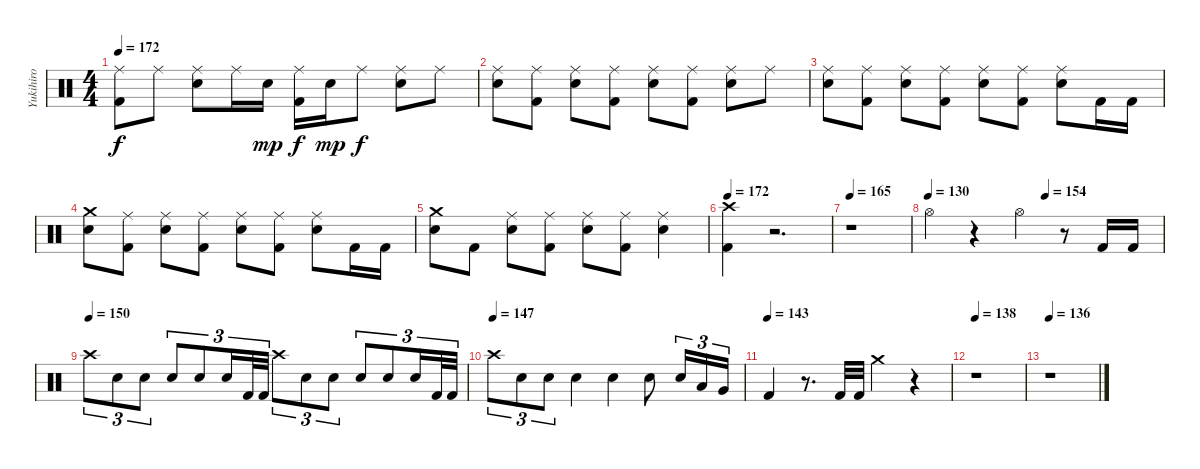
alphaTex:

\track ("Yukihiro" "Yukihiro") {instrument percussion}
\staff {score}
\articulation defaults
\ts (4 4)
\tempo 172
\clef neutral
\ks c
("Ride (middle)" "Kick (hit) 2").8{dy f} "Ride (middle)".8 ("Ride (middle)" "Electric Snare (hit)").8 "Ride (middle)".16 "Electric Snare (hit)".16{dy mp} ("Ride (middle)" "Kick (hit) 2").16{dy f} "Electric Snare (hit)".16{dy mp} "Ride (middle)".8{dy f} ("Ride (middle)" "Electric Snare (hit)").8 "Ride (middle)".8 |
("Ride (middle)" "Electric Snare (hit)").8 ("Ride (middle)" "Kick (hit) 2").8 ("Ride (middle)" "Electric Snare (hit)").8 ("Ride (middle)" "Kick (hit) 2").8 ("Ride (middle)" "Electric Snare (hit)").8 ("Ride (middle)" "Kick (hit) 2").8 ("Ride (middle)" "Electric Snare (hit)").8 "Ride (middle)".8 |
("Ride (middle)" "Electric Snare (hit)").8 ("Ride (middle)" "Kick (hit) 2").8 ("Ride (middle)" "Electric Snare (hit)").8 ("Ride (middle)" "Kick (hit) 2").8 ("Ride (middle)" "Electric Snare (hit)").8 ("Ride (middle)" "Kick (hit) 2").8 ("Ride (middle)" "Electric Snare (hit)").8 "Kick (hit) 2".16 "Kick (hit) 2".16 |
("Crash medium (hit)" "Electric Snare (hit)").8 ("Ride (middle)" "Kick (hit) 2").8 ("Ride (middle)" "Electric Snare (hit)").8 ("Ride (middle)" "Kick (hit) 2").8 ("Ride (middle)" "Electric Snare (hit)").8 ("Ride (middle)" "Kick (hit) 2").8 ("Ride (middle)" "Electric Snare (hit)").8 "Kick (hit) 2".16 "Kick (hit) 2".16 |
("Crash medium (hit)" "Electric Snare (hit)").8 "Kick (hit) 2".8 ("Ride (middle)" "Electric Snare (hit)").8 ("Ride (middle)" "Kick (hit) 2").8 ("Ride (middle)" "Electric Snare (hit)").8 ("Ride (middle)" "Kick (hit) 2").8 ("Ride (middle)" "Electric Snare (hit)").4 |
\tempo 172
("Crash high (hit)" "Kick (hit) 2").4 r.2{d} |
\tempo 165
r.1 |
\tempo 157
\tempo (154 0.5)
\tempo (130)
"Hi-Hat (open)".4 r.4 "Hi-Hat (open)".4 r.8 "Kick (hit) 2".16 "Kick (hit) 2".16 |
\tempo (150)
"Crash high (hit)".8{tu (3 2)} "Electric Snare (hit)".8{tu (3 2)} "Electric Snare (hit)".8{tu (3 2)} "Electric Snare (hit)".8{tu (3 2)} "Electric Snare (hit)".8{tu (3 2)} "Electric Snare (hit)".16{tu (3 2)} "Kick (hit) 2".32{tu (3 2)} "Kick (hit) 2".32{tu (3 2)} "Crash high (hit)".8{tu (3 2)} "Electric Snare (hit)".8{tu (3 2)} "Electric Snare (hit)".8{tu (3 2)} "Electric Snare (hit)".8{tu (3 2)} "Electric Snare (hit)".8{tu (3 2)} "Electric Snare (hit)".16{tu (3 2)} "Kick (hit) 2".32{tu (3 2)} "Kick (hit) 2".32{tu (3 2)} |
\tempo (147)
"Crash high (hit)".8{tu (3 2)} "Electric Snare (hit)".8{tu (3 2)} "Electric Snare (hit)".8{tu (3 2)} "Electric Snare (hit)".4 "Electric Snare (hit)".4 "Electric Snare (hit)".8 "Electric Snare (hit)".16{tu (3 2)} "Low Tom (hit)".16{tu (3 2)} "Very Low Tom (hit)".16{tu (3 2)} |
\tempo (143)
"Kick (hit) 2".4 r.8{d} "Kick (hit) 2".32 "Kick (hit) 2".32 "Crash medium (hit)".4 r.4 |
\tempo 138
r.1 |
\tempo 136
r.1
